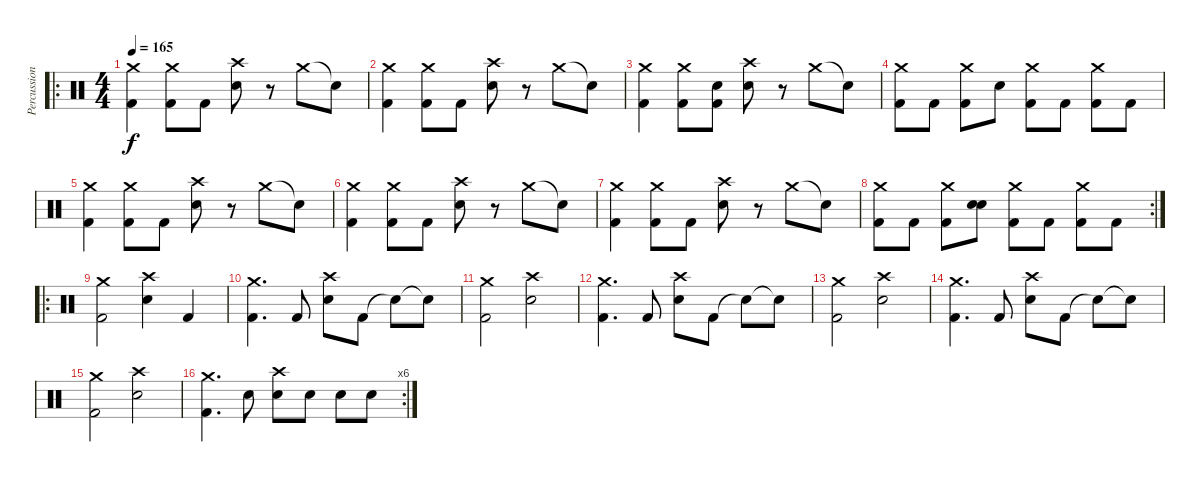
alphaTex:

\track ("Percussion" "Percussion") {instrument percussion}
\staff {score}
\articulation defaults
\ro
\ts (4 4)
\tempo 165
\clef neutral
\ks c
("Crash medium (hit)" "Kick (hit) 2").4{dy f} ("Crash medium (hit)" "Kick (hit) 2").8 "Kick (hit) 2".8 ("Crash high (hit)" "Electric Snare (hit)").8 r.8 "Crash medium (hit)".8 "Snare (hit)"{t}.8 |
("Crash medium (hit)" "Kick (hit) 2").4 ("Crash medium (hit)" "Kick (hit) 2").8 "Kick (hit) 2".8 ("Crash high (hit)" "Electric Snare (hit)").8 r.8 "Crash medium (hit)".8 "Snare (hit)"{t}.8 |
("Crash medium (hit)" "Kick (hit) 2").4 ("Crash medium (hit)" "Kick (hit) 2").8 ("Snare (hit)" "Kick (hit) 2").8 ("Crash high (hit)" "Electric Snare (hit)").8 r.8 "Crash medium (hit)".8 "Snare (hit)"{t}.8 |
("Crash medium (hit)" "Kick (hit) 2").8 "Kick (hit) 2".8 ("Crash medium (hit)" "Kick (hit) 2").8 "Electric Snare (hit)".8 ("Crash medium (hit)" "Kick (hit) 2").8 "Kick (hit) 2".8 ("Crash medium (hit)" "Kick (hit) 2").8 "Kick (hit) 2".8 |
("Crash medium (hit)" "Kick (hit) 2").4 ("Crash medium (hit)" "Kick (hit) 2").8 "Kick (hit) 2".8 ("Crash high (hit)" "Electric Snare (hit)").8 r.8 "Crash medium (hit)".8 "Snare (hit)"{t}.8 |
("Crash medium (hit)" "Kick (hit) 2").4 ("Crash medium (hit)" "Kick (hit) 2").8 "Kick (hit) 2".8 ("Crash high (hit)" "Electric Snare (hit)").8 r.8 "Crash medium (hit)".8 "Snare (hit)"{t}.8 |
("Crash medium (hit)" "Kick (hit) 2").4 ("Crash medium (hit)" "Kick (hit) 2").8 "Kick (hit) 2".8 ("Crash high (hit)" "Electric Snare (hit)").8 r.8 "Crash medium (hit)".8 "Snare (hit)"{t}.8 |
\rc 2
("Crash medium (hit)" "Kick (hit) 2").8 "Kick (hit) 2".8 ("Crash medium (hit)" "Kick (hit) 2").8 ("Snare (hit)" "Electric Snare (hit)").8 ("Crash medium (hit)" "Kick (hit) 2").8 "Kick (hit) 2".8 ("Crash medium (hit)" "Kick (hit) 2").8 "Kick (hit) 2".8 |
\ro
("Crash medium (hit)" "Kick (hit) 2").2 ("Crash high (hit)" "Electric Snare (hit)").4 "Kick (hit) 2".4 |
("Crash medium (hit)" "Kick (hit) 2").4{d} "Kick (hit) 2".8 ("Crash high (hit)" "Electric Snare (hit)").8 "Kick (hit) 2".8 "Snare (hit)"{t}.8 "Snare (hit)"{t}.8 |
("Crash medium (hit)" "Kick (hit) 2").2 ("Crash high (hit)" "Electric Snare (hit)").2 |
("Crash medium (hit)" "Kick (hit) 2").4{d} "Kick (hit) 2".8 ("Crash high (hit)" "Electric Snare (hit)").8 "Kick (hit) 2".8 "Snare (hit)"{t}.8 "Snare (hit)"{t}.8 |
("Crash medium (hit)" "Kick (hit) 2").2 ("Crash high (hit)" "Electric Snare (hit)").2 |
("Crash medium (hit)" "Kick (hit) 2").4{d} "Kick (hit) 2".8 ("Crash high (hit)" "Electric Snare (hit)").8 "Kick (hit) 2".8 "Snare (hit)"{t}.8 "Snare (hit)"{t}.8 |
("Crash medium (hit)" "Kick (hit) 2").2 ("Crash high (hit)" "Electric Snare (hit)").2 |
\rc 6
("Crash medium (hit)" "Kick (hit) 2").4{d} "Electric Snare (hit)".8 ("Crash high (hit)" "Electric Snare (hit)").8 "Electric Snare (hit)".8 "Electric Snare (hit)".8 "Electric Snare (hit)".8
